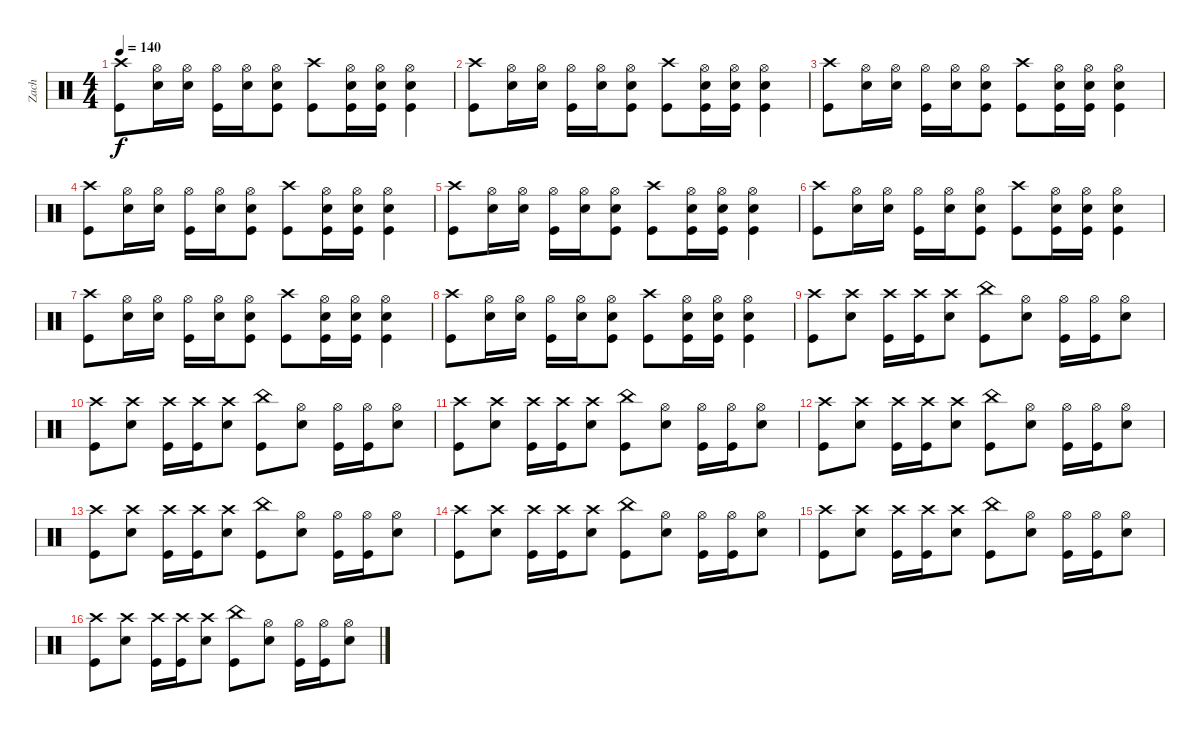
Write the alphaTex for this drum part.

\track ("Zach" "Zach") {instrument percussion}
\staff {score}
\articulation defaults
\ts (4 4)
\tempo 140
\clef neutral
\ks c
("Kick (hit)" "Crash high (hit)").8{dy f} ("Snare (hit) 2" "Hi-Hat (open)").16 ("Snare (hit) 2" "Hi-Hat (open)").16 ("Kick (hit)" "Hi-Hat (open)").16 ("Snare (hit) 2" "Hi-Hat (open)").16 ("Kick (hit)" "Snare (hit) 2" "Hi-Hat (open)").8 ("Kick (hit)" "Crash high (hit)").8 ("Kick (hit)" "Snare (hit) 2" "Hi-Hat (open)").16 ("Kick (hit)" "Snare (hit) 2" "Hi-Hat (open)").16 ("Kick (hit)" "Snare (hit) 2" "Hi-Hat (open)").4 |
("Kick (hit)" "Crash high (hit)").8 ("Snare (hit) 2" "Hi-Hat (open)").16 ("Snare (hit) 2" "Hi-Hat (open)").16 ("Kick (hit)" "Hi-Hat (open)").16 ("Snare (hit) 2" "Hi-Hat (open)").16 ("Kick (hit)" "Snare (hit) 2" "Hi-Hat (open)").8 ("Kick (hit)" "Crash high (hit)").8 ("Kick (hit)" "Snare (hit) 2" "Hi-Hat (open)").16 ("Kick (hit)" "Snare (hit) 2" "Hi-Hat (open)").16 ("Kick (hit)" "Snare (hit) 2" "Hi-Hat (open)").4 |
("Kick (hit)" "Crash high (hit)").8 ("Snare (hit) 2" "Hi-Hat (open)").16 ("Snare (hit) 2" "Hi-Hat (open)").16 ("Kick (hit)" "Hi-Hat (open)").16 ("Snare (hit) 2" "Hi-Hat (open)").16 ("Kick (hit)" "Snare (hit) 2" "Hi-Hat (open)").8 ("Kick (hit)" "Crash high (hit)").8 ("Kick (hit)" "Snare (hit) 2" "Hi-Hat (open)").16 ("Kick (hit)" "Snare (hit) 2" "Hi-Hat (open)").16 ("Kick (hit)" "Snare (hit) 2" "Hi-Hat (open)").4 |
("Kick (hit)" "Crash high (hit)").8 ("Snare (hit) 2" "Hi-Hat (open)").16 ("Snare (hit) 2" "Hi-Hat (open)").16 ("Kick (hit)" "Hi-Hat (open)").16 ("Snare (hit) 2" "Hi-Hat (open)").16 ("Kick (hit)" "Snare (hit) 2" "Hi-Hat (open)").8 ("Kick (hit)" "Crash high (hit)").8 ("Kick (hit)" "Snare (hit) 2" "Hi-Hat (open)").16 ("Kick (hit)" "Snare (hit) 2" "Hi-Hat (open)").16 ("Kick (hit)" "Snare (hit) 2" "Hi-Hat (open)").4 |
("Kick (hit)" "Crash high (hit)").8 ("Snare (hit) 2" "Hi-Hat (open)").16 ("Snare (hit) 2" "Hi-Hat (open)").16 ("Kick (hit)" "Hi-Hat (open)").16 ("Snare (hit) 2" "Hi-Hat (open)").16 ("Kick (hit)" "Snare (hit) 2" "Hi-Hat (open)").8 ("Kick (hit)" "Crash high (hit)").8 ("Kick (hit)" "Snare (hit) 2" "Hi-Hat (open)").16 ("Kick (hit)" "Snare (hit) 2" "Hi-Hat (open)").16 ("Kick (hit)" "Snare (hit) 2" "Hi-Hat (open)").4 |
("Kick (hit)" "Crash high (hit)").8 ("Snare (hit) 2" "Hi-Hat (open)").16 ("Snare (hit) 2" "Hi-Hat (open)").16 ("Kick (hit)" "Hi-Hat (open)").16 ("Snare (hit) 2" "Hi-Hat (open)").16 ("Kick (hit)" "Snare (hit) 2" "Hi-Hat (open)").8 ("Kick (hit)" "Crash high (hit)").8 ("Kick (hit)" "Snare (hit) 2" "Hi-Hat (open)").16 ("Kick (hit)" "Snare (hit) 2" "Hi-Hat (open)").16 ("Kick (hit)" "Snare (hit) 2" "Hi-Hat (open)").4 |
("Kick (hit)" "Crash high (hit)").8 ("Snare (hit) 2" "Hi-Hat (open)").16 ("Snare (hit) 2" "Hi-Hat (open)").16 ("Kick (hit)" "Hi-Hat (open)").16 ("Snare (hit) 2" "Hi-Hat (open)").16 ("Kick (hit)" "Snare (hit) 2" "Hi-Hat (open)").8 ("Kick (hit)" "Crash high (hit)").8 ("Kick (hit)" "Snare (hit) 2" "Hi-Hat (open)").16 ("Kick (hit)" "Snare (hit) 2" "Hi-Hat (open)").16 ("Kick (hit)" "Snare (hit) 2" "Hi-Hat (open)").4 |
("Kick (hit)" "Crash high (hit)").8 ("Snare (hit) 2" "Hi-Hat (open)").16 ("Snare (hit) 2" "Hi-Hat (open)").16 ("Kick (hit)" "Hi-Hat (open)").16 ("Snare (hit) 2" "Hi-Hat (open)").16 ("Kick (hit)" "Snare (hit) 2" "Hi-Hat (open)").8 ("Kick (hit)" "Crash high (hit)").8 ("Kick (hit)" "Snare (hit) 2" "Hi-Hat (open)").16 ("Kick (hit)" "Snare (hit) 2" "Hi-Hat (open)").16 ("Kick (hit)" "Snare (hit) 2" "Hi-Hat (open)").4 |
("Kick (hit)" "Crash high (hit)").8 ("Snare (hit) 2" "Crash high (hit)").8 ("Kick (hit)" "Crash high (hit)").16 ("Kick (hit)" "Crash high (hit)").16 ("Snare (hit) 2" "Crash high (hit)").8 ("Kick (hit)" "China (hit)").8 ("Snare (hit) 2" "Hi-Hat (open)").8 ("Kick (hit)" "Hi-Hat (open)").16 ("Kick (hit)" "Hi-Hat (open)").16 ("Snare (hit) 2" "Hi-Hat (open)").8 |
("Kick (hit)" "Crash high (hit)").8 ("Snare (hit) 2" "Crash high (hit)").8 ("Kick (hit)" "Crash high (hit)").16 ("Kick (hit)" "Crash high (hit)").16 ("Snare (hit) 2" "Crash high (hit)").8 ("Kick (hit)" "China (hit)").8 ("Snare (hit) 2" "Hi-Hat (open)").8 ("Kick (hit)" "Hi-Hat (open)").16 ("Kick (hit)" "Hi-Hat (open)").16 ("Snare (hit) 2" "Hi-Hat (open)").8 |
("Kick (hit)" "Crash high (hit)").8 ("Snare (hit) 2" "Crash high (hit)").8 ("Kick (hit)" "Crash high (hit)").16 ("Kick (hit)" "Crash high (hit)").16 ("Snare (hit) 2" "Crash high (hit)").8 ("Kick (hit)" "China (hit)").8 ("Snare (hit) 2" "Hi-Hat (open)").8 ("Kick (hit)" "Hi-Hat (open)").16 ("Kick (hit)" "Hi-Hat (open)").16 ("Snare (hit) 2" "Hi-Hat (open)").8 |
("Kick (hit)" "Crash high (hit)").8 ("Snare (hit) 2" "Crash high (hit)").8 ("Kick (hit)" "Crash high (hit)").16 ("Kick (hit)" "Crash high (hit)").16 ("Snare (hit) 2" "Crash high (hit)").8 ("Kick (hit)" "China (hit)").8 ("Snare (hit) 2" "Hi-Hat (open)").8 ("Kick (hit)" "Hi-Hat (open)").16 ("Kick (hit)" "Hi-Hat (open)").16 ("Snare (hit) 2" "Hi-Hat (open)").8 |
("Kick (hit)" "Crash high (hit)").8 ("Snare (hit) 2" "Crash high (hit)").8 ("Kick (hit)" "Crash high (hit)").16 ("Kick (hit)" "Crash high (hit)").16 ("Snare (hit) 2" "Crash high (hit)").8 ("Kick (hit)" "China (hit)").8 ("Snare (hit) 2" "Hi-Hat (open)").8 ("Kick (hit)" "Hi-Hat (open)").16 ("Kick (hit)" "Hi-Hat (open)").16 ("Snare (hit) 2" "Hi-Hat (open)").8 |
("Kick (hit)" "Crash high (hit)").8 ("Snare (hit) 2" "Crash high (hit)").8 ("Kick (hit)" "Crash high (hit)").16 ("Kick (hit)" "Crash high (hit)").16 ("Snare (hit) 2" "Crash high (hit)").8 ("Kick (hit)" "China (hit)").8 ("Snare (hit) 2" "Hi-Hat (open)").8 ("Kick (hit)" "Hi-Hat (open)").16 ("Kick (hit)" "Hi-Hat (open)").16 ("Snare (hit) 2" "Hi-Hat (open)").8 |
("Kick (hit)" "Crash high (hit)").8 ("Snare (hit) 2" "Crash high (hit)").8 ("Kick (hit)" "Crash high (hit)").16 ("Kick (hit)" "Crash high (hit)").16 ("Snare (hit) 2" "Crash high (hit)").8 ("Kick (hit)" "China (hit)").8 ("Snare (hit) 2" "Hi-Hat (open)").8 ("Kick (hit)" "Hi-Hat (open)").16 ("Kick (hit)" "Hi-Hat (open)").16 ("Snare (hit) 2" "Hi-Hat (open)").8 |
("Kick (hit)" "Crash high (hit)").8 ("Snare (hit) 2" "Crash high (hit)").8 ("Kick (hit)" "Crash high (hit)").16 ("Kick (hit)" "Crash high (hit)").16 ("Snare (hit) 2" "Crash high (hit)").8 ("Kick (hit)" "China (hit)").8 ("Snare (hit) 2" "Hi-Hat (open)").8 ("Kick (hit)" "Hi-Hat (open)").16 ("Kick (hit)" "Hi-Hat (open)").16 ("Snare (hit) 2" "Hi-Hat (open)").8
